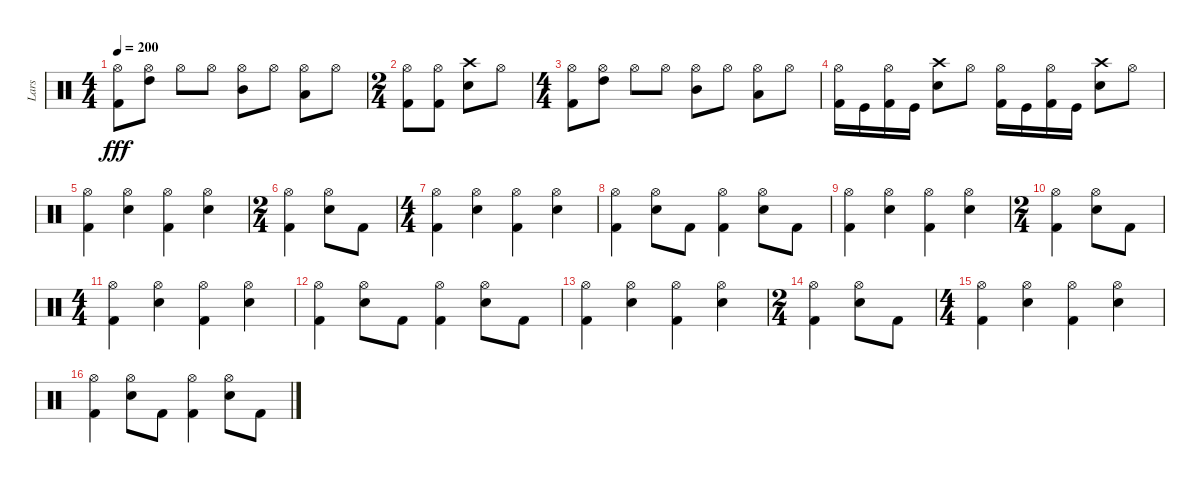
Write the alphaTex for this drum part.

\track ("Lars" "Lars") {instrument percussion}
\staff {score}
\articulation defaults
\ts (4 4)
\tempo 200
\clef neutral
\ks c
("Hi-Hat (open)" "Kick (hit) 2").8{dy fff} ("Hi-Hat (open)" "High Tom (hit)").8 "Hi-Hat (open)".8 "Hi-Hat (open)".8 ("Hi-Hat (open)" "Mid Tom (hit)").8 "Hi-Hat (open)".8 ("Hi-Hat (open)" "Low Tom (hit)").8 "Hi-Hat (open)".8 |
\ts (2 4)
("Hi-Hat (open)" "Kick (hit) 2").8 ("Hi-Hat (open)" "Kick (hit) 2").8 ("Crash high (hit)" "Snare (hit) 2").8 "Hi-Hat (open)".8 |
\ts (4 4)
("Hi-Hat (open)" "Kick (hit) 2").8 ("Hi-Hat (open)" "High Tom (hit)").8 "Hi-Hat (open)".8 "Hi-Hat (open)".8 ("Hi-Hat (open)" "Mid Tom (hit)").8 "Hi-Hat (open)".8 ("Hi-Hat (open)" "Low Tom (hit)").8 "Hi-Hat (open)".8 |
("Hi-Hat (open)" "Kick (hit) 2").16 "Kick (hit)".16 ("Hi-Hat (open)" "Kick (hit) 2").16 "Kick (hit)".16 ("Crash high (hit)" "Snare (hit) 2").8 "Hi-Hat (open)".8 ("Hi-Hat (open)" "Kick (hit) 2").16 "Kick (hit)".16 ("Hi-Hat (open)" "Kick (hit) 2").16 "Kick (hit)".16 ("Crash high (hit)" "Snare (hit) 2").8 "Hi-Hat (open)".8 |
("Hi-Hat (open)" "Kick (hit) 2").4 ("Hi-Hat (open)" "Snare (hit) 2").4 ("Hi-Hat (open)" "Kick (hit) 2").4 ("Hi-Hat (open)" "Snare (hit) 2").4 |
\ts (2 4)
("Hi-Hat (open)" "Kick (hit) 2").4 ("Hi-Hat (open)" "Snare (hit) 2").8 "Kick (hit) 2".8 |
\ts (4 4)
("Hi-Hat (open)" "Kick (hit) 2").4 ("Hi-Hat (open)" "Snare (hit) 2").4 ("Hi-Hat (open)" "Kick (hit) 2").4 ("Hi-Hat (open)" "Snare (hit) 2").4 |
("Hi-Hat (open)" "Kick (hit) 2").4 ("Hi-Hat (open)" "Snare (hit) 2").8 "Kick (hit) 2".8 ("Hi-Hat (open)" "Kick (hit) 2").4 ("Hi-Hat (open)" "Snare (hit) 2").8 "Kick (hit) 2".8 |
("Hi-Hat (open)" "Kick (hit) 2").4 ("Hi-Hat (open)" "Snare (hit) 2").4 ("Hi-Hat (open)" "Kick (hit) 2").4 ("Hi-Hat (open)" "Snare (hit) 2").4 |
\ts (2 4)
("Hi-Hat (open)" "Kick (hit) 2").4 ("Hi-Hat (open)" "Snare (hit) 2").8 "Kick (hit) 2".8 |
\ts (4 4)
("Hi-Hat (open)" "Kick (hit) 2").4 ("Hi-Hat (open)" "Snare (hit) 2").4 ("Hi-Hat (open)" "Kick (hit) 2").4 ("Hi-Hat (open)" "Snare (hit) 2").4 |
("Hi-Hat (open)" "Kick (hit) 2").4 ("Hi-Hat (open)" "Snare (hit) 2").8 "Kick (hit) 2".8 ("Hi-Hat (open)" "Kick (hit) 2").4 ("Hi-Hat (open)" "Snare (hit) 2").8 "Kick (hit) 2".8 |
("Hi-Hat (open)" "Kick (hit) 2").4 ("Hi-Hat (open)" "Snare (hit) 2").4 ("Hi-Hat (open)" "Kick (hit) 2").4 ("Hi-Hat (open)" "Snare (hit) 2").4 |
\ts (2 4)
("Hi-Hat (open)" "Kick (hit) 2").4 ("Hi-Hat (open)" "Snare (hit) 2").8 "Kick (hit) 2".8 |
\ts (4 4)
("Hi-Hat (open)" "Kick (hit) 2").4 ("Hi-Hat (open)" "Snare (hit) 2").4 ("Hi-Hat (open)" "Kick (hit) 2").4 ("Hi-Hat (open)" "Snare (hit) 2").4 |
("Hi-Hat (open)" "Kick (hit) 2").4 ("Hi-Hat (open)" "Snare (hit) 2").8 "Kick (hit) 2".8 ("Hi-Hat (open)" "Kick (hit) 2").4 ("Hi-Hat (open)" "Snare (hit) 2").8 "Kick (hit) 2".8
